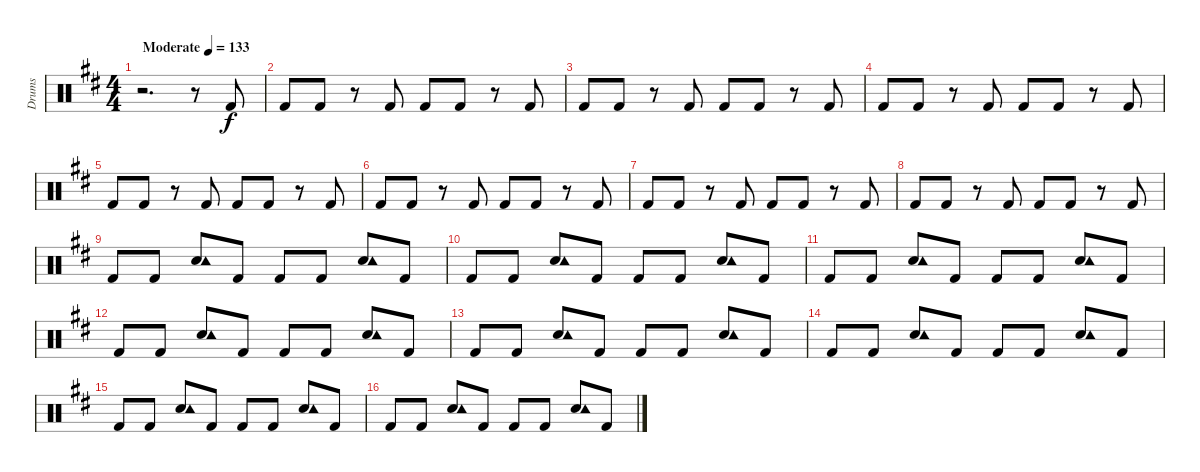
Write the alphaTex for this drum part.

\track ("Drums" "Drums") {instrument percussion}
\staff {score}
\articulation defaults
\ts (4 4)
\tempo (133 "Moderate")
\clef neutral
\ks d
r.2{d dy f} r.8 "Kick (hit) 2".8 |
"Kick (hit) 2".8 "Kick (hit) 2".8 r.8 "Kick (hit) 2".8 "Kick (hit) 2".8 "Kick (hit) 2".8 r.8 "Kick (hit) 2".8 |
"Kick (hit) 2".8 "Kick (hit) 2".8 r.8 "Kick (hit) 2".8 "Kick (hit) 2".8 "Kick (hit) 2".8 r.8 "Kick (hit) 2".8 |
"Kick (hit) 2".8 "Kick (hit) 2".8 r.8 "Kick (hit) 2".8 "Kick (hit) 2".8 "Kick (hit) 2".8 r.8 "Kick (hit) 2".8 |
"Kick (hit) 2".8 "Kick (hit) 2".8 r.8 "Kick (hit) 2".8 "Kick (hit) 2".8 "Kick (hit) 2".8 r.8 "Kick (hit) 2".8 |
"Kick (hit) 2".8 "Kick (hit) 2".8 r.8 "Kick (hit) 2".8 "Kick (hit) 2".8 "Kick (hit) 2".8 r.8 "Kick (hit) 2".8 |
"Kick (hit) 2".8 "Kick (hit) 2".8 r.8 "Kick (hit) 2".8 "Kick (hit) 2".8 "Kick (hit) 2".8 r.8 "Kick (hit) 2".8 |
"Kick (hit) 2".8 "Kick (hit) 2".8 r.8 "Kick (hit) 2".8 "Kick (hit) 2".8 "Kick (hit) 2".8 r.8 "Kick (hit) 2".8 |
"Kick (hit) 2".8 "Kick (hit) 2".8 ("Snare (hit) 2" "Tambourine (hit)").8 "Kick (hit) 2".8 "Kick (hit) 2".8 "Kick (hit) 2".8 ("Snare (hit) 2" "Tambourine (hit)").8 "Kick (hit) 2".8 |
"Kick (hit) 2".8 "Kick (hit) 2".8 ("Snare (hit) 2" "Tambourine (hit)").8 "Kick (hit) 2".8 "Kick (hit) 2".8 "Kick (hit) 2".8 ("Snare (hit) 2" "Tambourine (hit)").8 "Kick (hit) 2".8 |
"Kick (hit) 2".8 "Kick (hit) 2".8 ("Snare (hit) 2" "Tambourine (hit)").8 "Kick (hit) 2".8 "Kick (hit) 2".8 "Kick (hit) 2".8 ("Snare (hit) 2" "Tambourine (hit)").8 "Kick (hit) 2".8 |
"Kick (hit) 2".8 "Kick (hit) 2".8 ("Snare (hit) 2" "Tambourine (hit)").8 "Kick (hit) 2".8 "Kick (hit) 2".8 "Kick (hit) 2".8 ("Snare (hit) 2" "Tambourine (hit)").8 "Kick (hit) 2".8 |
"Kick (hit) 2".8 "Kick (hit) 2".8 ("Snare (hit) 2" "Tambourine (hit)").8 "Kick (hit) 2".8 "Kick (hit) 2".8 "Kick (hit) 2".8 ("Snare (hit) 2" "Tambourine (hit)").8 "Kick (hit) 2".8 |
"Kick (hit) 2".8 "Kick (hit) 2".8 ("Snare (hit) 2" "Tambourine (hit)").8 "Kick (hit) 2".8 "Kick (hit) 2".8 "Kick (hit) 2".8 ("Snare (hit) 2" "Tambourine (hit)").8 "Kick (hit) 2".8 |
"Kick (hit) 2".8 "Kick (hit) 2".8 ("Snare (hit) 2" "Tambourine (hit)").8 "Kick (hit) 2".8 "Kick (hit) 2".8 "Kick (hit) 2".8 ("Snare (hit) 2" "Tambourine (hit)").8 "Kick (hit) 2".8 |
"Kick (hit) 2".8 "Kick (hit) 2".8 ("Snare (hit) 2" "Tambourine (hit)").8 "Kick (hit) 2".8 "Kick (hit) 2".8 "Kick (hit) 2".8 ("Snare (hit) 2" "Tambourine (hit)").8 "Kick (hit) 2".8
